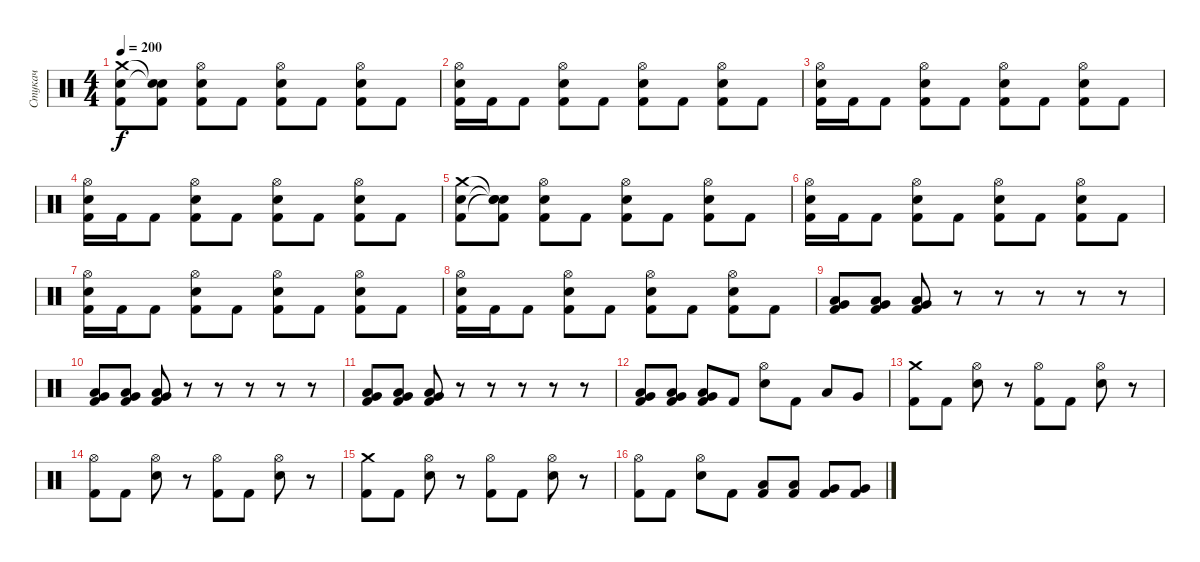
\track ("Стукач" "Стукач") {instrument percussion}
\staff {score}
\articulation defaults
\ts (4 4)
\tempo 200
\clef neutral
\ks c
("Crash medium (hit)" "Electric Snare (hit)" "Kick (hit) 2").8{dy f} ("Snare (hit)"{t} "Snare (hit)"{t} "Kick (hit) 2").8 ("Hi-Hat (open)" "Electric Snare (hit)" "Kick (hit) 2").8 "Kick (hit) 2".8 ("Hi-Hat (open)" "Electric Snare (hit)" "Kick (hit) 2").8 "Kick (hit) 2".8 ("Hi-Hat (open)" "Electric Snare (hit)" "Kick (hit) 2").8 "Kick (hit) 2".8 |
("Hi-Hat (open)" "Electric Snare (hit)" "Kick (hit) 2").16 "Kick (hit) 2".16 "Kick (hit) 2".8 ("Hi-Hat (open)" "Electric Snare (hit)" "Kick (hit) 2").8 "Kick (hit) 2".8 ("Hi-Hat (open)" "Electric Snare (hit)" "Kick (hit) 2").8 "Kick (hit) 2".8 ("Hi-Hat (open)" "Electric Snare (hit)" "Kick (hit) 2").8 "Kick (hit) 2".8 |
("Hi-Hat (open)" "Electric Snare (hit)" "Kick (hit) 2").16 "Kick (hit) 2".16 "Kick (hit) 2".8 ("Hi-Hat (open)" "Electric Snare (hit)" "Kick (hit) 2").8 "Kick (hit) 2".8 ("Hi-Hat (open)" "Electric Snare (hit)" "Kick (hit) 2").8 "Kick (hit) 2".8 ("Hi-Hat (open)" "Electric Snare (hit)" "Kick (hit) 2").8 "Kick (hit) 2".8 |
("Hi-Hat (open)" "Electric Snare (hit)" "Kick (hit) 2").16 "Kick (hit) 2".16 "Kick (hit) 2".8 ("Hi-Hat (open)" "Electric Snare (hit)" "Kick (hit) 2").8 "Kick (hit) 2".8 ("Hi-Hat (open)" "Electric Snare (hit)" "Kick (hit) 2").8 "Kick (hit) 2".8 ("Hi-Hat (open)" "Electric Snare (hit)" "Kick (hit) 2").8 "Kick (hit) 2".8 |
("Crash medium (hit)" "Electric Snare (hit)" "Kick (hit) 2").8 ("Snare (hit)"{t} "Snare (hit)"{t} "Snare (hit)"{t} "Kick (hit) 2").8 ("Hi-Hat (open)" "Electric Snare (hit)" "Kick (hit) 2").8 "Kick (hit) 2".8 ("Hi-Hat (open)" "Electric Snare (hit)" "Kick (hit) 2").8 "Kick (hit) 2".8 ("Hi-Hat (open)" "Electric Snare (hit)" "Kick (hit) 2").8 "Kick (hit) 2".8 |
("Hi-Hat (open)" "Electric Snare (hit)" "Kick (hit) 2").16 "Kick (hit) 2".16 "Kick (hit) 2".8 ("Hi-Hat (open)" "Electric Snare (hit)" "Kick (hit) 2").8 "Kick (hit) 2".8 ("Hi-Hat (open)" "Electric Snare (hit)" "Kick (hit) 2").8 "Kick (hit) 2".8 ("Hi-Hat (open)" "Electric Snare (hit)" "Kick (hit) 2").8 "Kick (hit) 2".8 |
("Hi-Hat (open)" "Electric Snare (hit)" "Kick (hit) 2").16 "Kick (hit) 2".16 "Kick (hit) 2".8 ("Hi-Hat (open)" "Electric Snare (hit)" "Kick (hit) 2").8 "Kick (hit) 2".8 ("Hi-Hat (open)" "Electric Snare (hit)" "Kick (hit) 2").8 "Kick (hit) 2".8 ("Hi-Hat (open)" "Electric Snare (hit)" "Kick (hit) 2").8 "Kick (hit) 2".8 |
("Hi-Hat (open)" "Electric Snare (hit)" "Kick (hit) 2").16 "Kick (hit) 2".16 "Kick (hit) 2".8 ("Hi-Hat (open)" "Electric Snare (hit)" "Kick (hit) 2").8 "Kick (hit) 2".8 ("Hi-Hat (open)" "Electric Snare (hit)" "Kick (hit) 2").8 "Kick (hit) 2".8 ("Hi-Hat (open)" "Electric Snare (hit)" "Kick (hit) 2").8 "Kick (hit) 2".8 |
("Very Low Tom (hit)" "Low Tom (hit)" "Kick (hit) 2").8 ("Very Low Tom (hit)" "Low Tom (hit)" "Kick (hit) 2").8 ("Very Low Tom (hit)" "Low Tom (hit)" "Kick (hit) 2").8 r.8 r.8 r.8 r.8 r.8 |
("Very Low Tom (hit)" "Low Tom (hit)" "Kick (hit) 2").8 ("Very Low Tom (hit)" "Low Tom (hit)" "Kick (hit) 2").8 ("Very Low Tom (hit)" "Low Tom (hit)" "Kick (hit) 2").8 r.8 r.8 r.8 r.8 r.8 |
("Very Low Tom (hit)" "Low Tom (hit)" "Kick (hit) 2").8 ("Very Low Tom (hit)" "Low Tom (hit)" "Kick (hit) 2").8 ("Very Low Tom (hit)" "Low Tom (hit)" "Kick (hit) 2").8 r.8 r.8 r.8 r.8 r.8 |
("Very Low Tom (hit)" "Low Tom (hit)" "Kick (hit) 2").8 ("Very Low Tom (hit)" "Low Tom (hit)" "Kick (hit) 2").8 ("Very Low Tom (hit)" "Low Tom (hit)" "Kick (hit) 2").8 "Kick (hit) 2".8 ("Hi-Hat (open)" "Electric Snare (hit)").8 "Kick (hit) 2".8 "Low Tom (hit)".8 "Very Low Tom (hit)".8 |
("Crash medium (hit)" "Kick (hit) 2").8 "Kick (hit) 2".8 ("Hi-Hat (open)" "Electric Snare (hit)").8 r.8 ("Hi-Hat (open)" "Kick (hit) 2").8 "Kick (hit) 2".8 ("Hi-Hat (open)" "Electric Snare (hit)").8 r.8 |
("Hi-Hat (open)" "Kick (hit) 2").8 "Kick (hit) 2".8 ("Hi-Hat (open)" "Electric Snare (hit)").8 r.8 ("Hi-Hat (open)" "Kick (hit) 2").8 "Kick (hit) 2".8 ("Hi-Hat (open)" "Electric Snare (hit)").8 r.8 |
("Crash medium (hit)" "Kick (hit) 2").8 "Kick (hit) 2".8 ("Hi-Hat (open)" "Electric Snare (hit)").8 r.8 ("Hi-Hat (open)" "Kick (hit) 2").8 "Kick (hit) 2".8 ("Hi-Hat (open)" "Electric Snare (hit)").8 r.8 |
("Hi-Hat (open)" "Kick (hit) 2").8 "Kick (hit) 2".8 ("Hi-Hat (open)" "Electric Snare (hit)").8 "Kick (hit) 2".8 ("Low Tom (hit)" "Kick (hit) 2").8 ("Low Tom (hit)" "Kick (hit) 2").8 ("Very Low Tom (hit)" "Kick (hit) 2").8 ("Very Low Tom (hit)" "Kick (hit) 2").8
